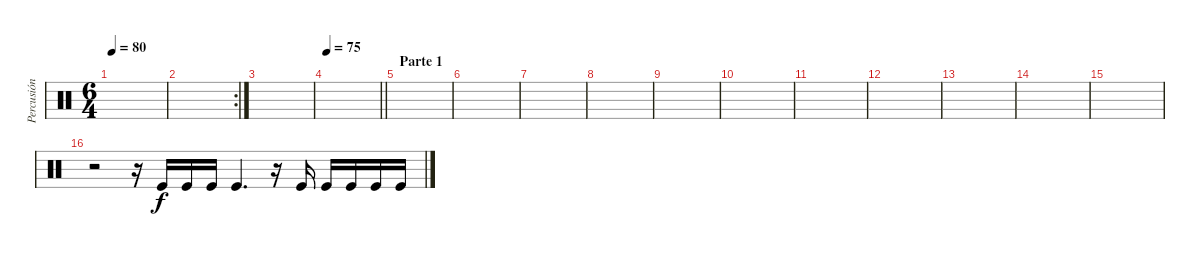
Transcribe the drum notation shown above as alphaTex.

\track ("Percusión" "Percusión") {instrument percussion}
\staff {score}
\articulation defaults
\ts (6 4)
\tempo 80
\clef neutral
\ks c
|
\rc 2
|
|
\tempo 75
\barLineRight lightlight
|
\section ("" "Parte 1")
|
|
|
|
|
|
|
|
|
|
|
r.2 r.16 "Kick (hit)".16 "Kick (hit)".16 "Kick (hit)".16 "Kick (hit)".4{d} r.16 "Kick (hit)".16 "Kick (hit)".16 "Kick (hit)".16 "Kick (hit)".16 "Kick (hit)".16
